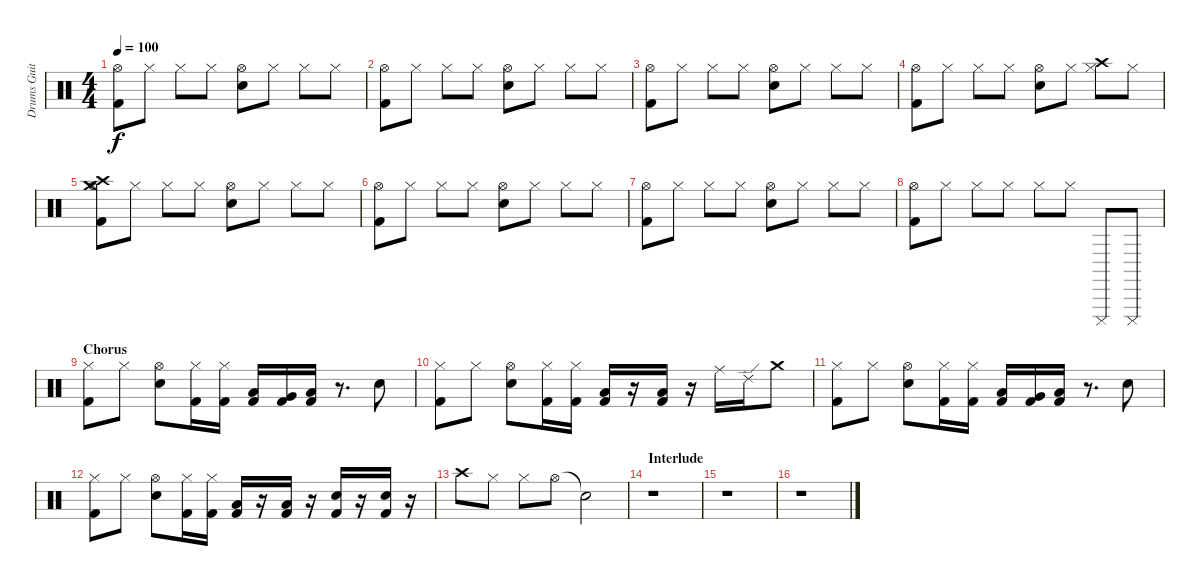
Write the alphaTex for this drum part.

\track ("Drums Guitar" "Drums Guit") {instrument percussion}
\staff {score}
\articulation defaults
\ts (4 4)
\tempo 100
\clef neutral
\ks c
("Hi-Hat (open)" "Kick (hit) 2").8{dy f} "Hi-Hat (closed)".8 "Hi-Hat (closed)".8 "Hi-Hat (closed)".8 ("Hi-Hat (open)" "Snare (hit) 2").8 "Hi-Hat (closed)".8 "Hi-Hat (closed)".8 "Hi-Hat (closed)".8 |
("Hi-Hat (open)" "Kick (hit) 2").8 "Hi-Hat (closed)".8 "Hi-Hat (closed)".8 "Hi-Hat (closed)".8 ("Hi-Hat (open)" "Snare (hit) 2").8 "Hi-Hat (closed)".8 "Hi-Hat (closed)".8 "Hi-Hat (closed)".8 |
("Hi-Hat (open)" "Kick (hit) 2").8 "Hi-Hat (closed)".8 "Hi-Hat (closed)".8 "Hi-Hat (closed)".8 ("Hi-Hat (open)" "Snare (hit) 2").8 "Hi-Hat (closed)".8 "Hi-Hat (closed)".8 "Hi-Hat (closed)".8 |
("Hi-Hat (open)" "Kick (hit) 2").8 "Hi-Hat (closed)".8 "Hi-Hat (closed)".8 "Hi-Hat (closed)".8 ("Hi-Hat (open)" "Snare (hit) 2").8 "Hi-Hat (closed)".8 ("Crash high (hit)" "Hi-Hat (closed)").8 "Hi-Hat (closed)".8 |
("Crash high (hit)" "Crash medium (hit)" "Hi-Hat (open)" "Kick (hit) 2").8 "Hi-Hat (closed)".8 "Hi-Hat (closed)".8 "Hi-Hat (closed)".8 ("Hi-Hat (open)" "Snare (hit) 2").8 "Hi-Hat (closed)".8 "Hi-Hat (closed)".8 "Hi-Hat (closed)".8 |
("Hi-Hat (open)" "Kick (hit) 2").8 "Hi-Hat (closed)".8 "Hi-Hat (closed)".8 "Hi-Hat (closed)".8 ("Hi-Hat (open)" "Snare (hit) 2").8 "Hi-Hat (closed)".8 "Hi-Hat (closed)".8 "Hi-Hat (closed)".8 |
("Hi-Hat (open)" "Kick (hit) 2").8 "Hi-Hat (closed)".8 "Hi-Hat (closed)".8 "Hi-Hat (closed)".8 ("Hi-Hat (open)" "Snare (hit) 2").8 "Hi-Hat (closed)".8 "Hi-Hat (closed)".8 "Hi-Hat (closed)".8 |
("Hi-Hat (open)" "Kick (hit) 2").8 "Hi-Hat (closed)".8 "Hi-Hat (closed)".8 "Hi-Hat (closed)".8 "Hi-Hat (closed)".8 "Hi-Hat (closed)".8 "Cuica (mute)".8 "Cuica (mute)".8 |
\section ("" "Chorus")
("Hi-Hat (closed)" "Kick (hit) 2").8 "Hi-Hat (closed)".8 ("Hi-Hat (open)" "Snare (hit) 2").8 ("Hi-Hat (closed)" "Kick (hit) 2").16 ("Hi-Hat (closed)" "Kick (hit) 2").16 ("Low Tom (hit)" "Kick (hit) 2").16 ("Very Low Tom (hit)" "Kick (hit) 2").16 ("Low Tom (hit)" "Kick (hit) 2").16 r.8{d} "Snare (hit) 2".8 |
("Hi-Hat (closed)" "Kick (hit) 2").8 "Hi-Hat (closed)".8 ("Hi-Hat (open)" "Snare (hit) 2").8 ("Hi-Hat (closed)" "Kick (hit) 2").16 ("Hi-Hat (closed)" "Kick (hit) 2").16 ("Low Tom (hit)" "Kick (hit) 2").16 r.16 ("Low Tom (hit)" "Kick (hit) 2").16 r.16 "Ride (middle)".16 "Ride (edge) 2".16 "Crash medium (hit)".8 |
("Hi-Hat (closed)" "Kick (hit) 2").8 "Hi-Hat (closed)".8 ("Hi-Hat (open)" "Snare (hit) 2").8 ("Hi-Hat (closed)" "Kick (hit) 2").16 ("Hi-Hat (closed)" "Kick (hit) 2").16 ("Low Tom (hit)" "Kick (hit) 2").16 ("Very Low Tom (hit)" "Kick (hit) 2").16 ("Low Tom (hit)" "Kick (hit) 2").16 r.8{d} "Snare (hit) 2".8 |
("Hi-Hat (closed)" "Kick (hit) 2").8 "Hi-Hat (closed)".8 ("Hi-Hat (open)" "Snare (hit) 2").8 ("Hi-Hat (closed)" "Kick (hit) 2").16 ("Hi-Hat (closed)" "Kick (hit) 2").16 ("Low Tom (hit)" "Kick (hit) 2").16 r.16 ("Low Tom (hit)" "Kick (hit) 2").16 r.16 ("Snare (hit) 2" "Kick (hit) 2").16 r.16 ("Snare (hit) 2" "Kick (hit) 2").16 r.16 |
"Crash high (hit)".8 "Hi-Hat (closed)".8 "Hi-Hat (closed)".8 "Hi-Hat (open)".8 "Snare (hit)"{t}.2 |
\section ("" "Interlude")
r.1 |
r.1 |
r.1
